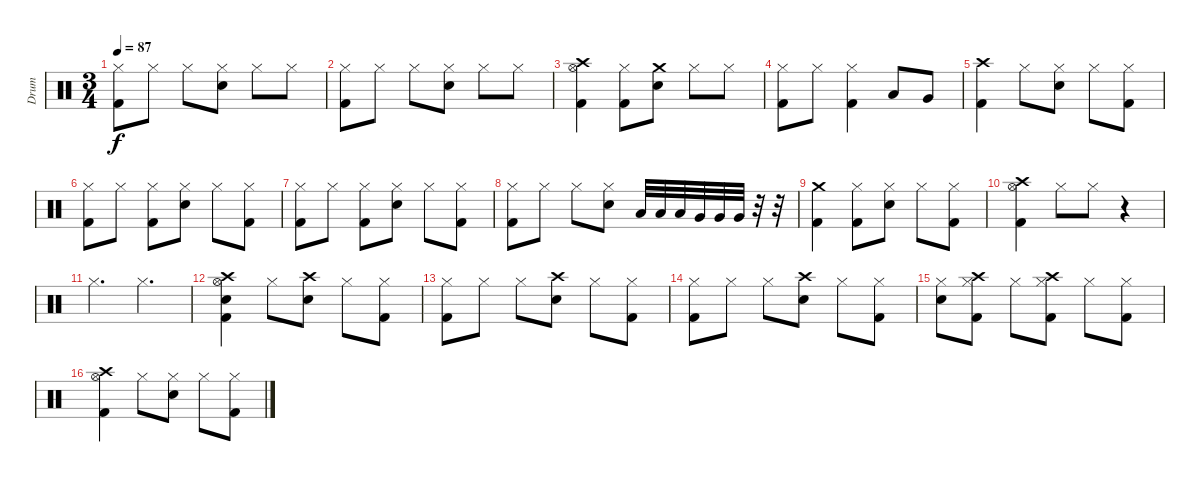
\track ("Drum" "Drum") {instrument percussion}
\staff {score}
\articulation defaults
\ts (3 4)
\tempo 87
\clef neutral
\ks c
("Hi-Hat (closed)" "Kick (hit) 2").8{dy f} "Hi-Hat (closed)".8 "Hi-Hat (closed)".8 ("Hi-Hat (closed)" "Electric Snare (hit)").8 "Hi-Hat (closed)".8 "Hi-Hat (closed)".8 |
("Hi-Hat (closed)" "Kick (hit) 2").8 "Hi-Hat (closed)".8 "Hi-Hat (closed)".8 ("Hi-Hat (closed)" "Electric Snare (hit)").8 "Hi-Hat (closed)".8 "Hi-Hat (closed)".8 |
("Crash high (hit)" "Hi-Hat (open)" "Kick (hit) 2").4 ("Hi-Hat (closed)" "Kick (hit) 2").8 ("Crash medium (hit)" "Electric Snare (hit)").8 "Hi-Hat (closed)".8 "Hi-Hat (closed)".8 |
("Hi-Hat (closed)" "Kick (hit) 2").8 "Hi-Hat (closed)".8 ("Hi-Hat (closed)" "Kick (hit) 2").4 "Low Tom (hit)".8 "Very Low Tom (hit)".8 |
("Crash high (hit)" "Kick (hit) 2").4 "Hi-Hat (closed)".8 ("Hi-Hat (closed)" "Electric Snare (hit)").8 "Hi-Hat (closed)".8 ("Hi-Hat (closed)" "Kick (hit) 2").8 |
("Hi-Hat (closed)" "Kick (hit) 2").8 "Hi-Hat (closed)".8 ("Hi-Hat (closed)" "Kick (hit) 2").8 ("Hi-Hat (closed)" "Electric Snare (hit)").8 "Hi-Hat (closed)".8 ("Hi-Hat (closed)" "Kick (hit) 2").8 |
("Hi-Hat (closed)" "Kick (hit) 2").8 "Hi-Hat (closed)".8 ("Hi-Hat (closed)" "Kick (hit) 2").8 ("Hi-Hat (closed)" "Electric Snare (hit)").8 "Hi-Hat (closed)".8 ("Hi-Hat (closed)" "Kick (hit) 2").8 |
("Hi-Hat (closed)" "Kick (hit) 2").8 "Hi-Hat (closed)".8 "Hi-Hat (closed)".8 ("Hi-Hat (closed)" "Electric Snare (hit)").8 "Low Tom (hit)".32 "Low Tom (hit)".32 "Low Tom (hit)".32 "Very Low Tom (hit)".32 "Very Low Tom (hit)".32 "Very Low Tom (hit)".32 r.32 r.32 |
("Crash medium (hit)" "Kick (hit) 2").4 ("Hi-Hat (closed)" "Kick (hit) 2").8 ("Hi-Hat (closed)" "Electric Snare (hit)").8 "Hi-Hat (closed)".8 ("Hi-Hat (closed)" "Kick (hit) 2").8 |
("Crash high (hit)" "Hi-Hat (open)" "Kick (hit) 2").4 "Hi-Hat (closed)".8 "Hi-Hat (closed)".8 r.4 |
"Hi-Hat (closed)".4{d} "Hi-Hat (closed)".4{d} |
("Crash high (hit)" "Hi-Hat (open)" "Electric Snare (hit)" "Kick (hit) 2").4 "Hi-Hat (closed)".8 ("Crash high (hit)" "Electric Snare (hit)").8 "Hi-Hat (closed)".8 ("Hi-Hat (closed)" "Kick (hit) 2").8 |
("Hi-Hat (closed)" "Kick (hit) 2").8 "Hi-Hat (closed)".8 "Hi-Hat (closed)".8 ("Crash high (hit)" "Electric Snare (hit)").8 "Hi-Hat (closed)".8 ("Hi-Hat (closed)" "Kick (hit) 2").8 |
("Hi-Hat (closed)" "Kick (hit) 2").8 "Hi-Hat (closed)".8 "Hi-Hat (closed)".8 ("Crash high (hit)" "Electric Snare (hit)").8 "Hi-Hat (closed)".8 ("Hi-Hat (closed)" "Kick (hit) 2").8 |
("Hi-Hat (closed)" "Electric Snare (hit)").8 ("Crash high (hit)" "Hi-Hat (closed)" "Kick (hit) 2").8 "Hi-Hat (closed)".8 ("Crash high (hit)" "Hi-Hat (closed)" "Kick (hit) 2").8 "Hi-Hat (closed)".8 ("Hi-Hat (closed)" "Kick (hit) 2").8 |
("Crash high (hit)" "Hi-Hat (open)" "Kick (hit) 2").4 "Hi-Hat (closed)".8 ("Hi-Hat (closed)" "Electric Snare (hit)").8 "Hi-Hat (closed)".8 ("Hi-Hat (closed)" "Kick (hit) 2").8
